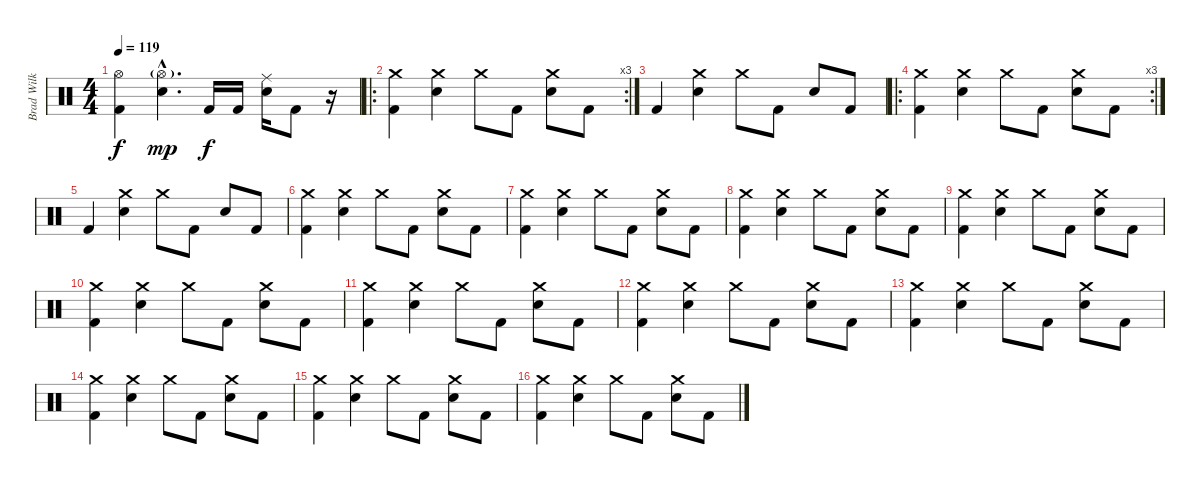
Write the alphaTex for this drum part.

\track ("Brad Wilk" "Brad Wilk") {instrument percussion}
\staff {score}
\articulation defaults
\ts (4 4)
\tempo 119
\clef neutral
\ks c
("Hi-Hat (open)" "Kick (hit) 2").4{dy f} ("Hi-Hat (open)"{g hac} "Electric Snare (hit)"{hac}).4{d dy mp} "Kick (hit) 2".16{dy f} "Kick (hit) 2".16 ("Ride (middle)" "Electric Snare (hit)").16 "Kick (hit) 2".8 r.16 |
\ro
\rc 3
("Crash medium (hit)" "Kick (hit) 2").4 ("Crash medium (hit)" "Electric Snare (hit)").4 "Crash medium (hit)".8 "Kick (hit) 2".8 ("Crash medium (hit)" "Electric Snare (hit)").8 "Kick (hit) 2".8 |
"Kick (hit) 2".4 ("Crash medium (hit)" "Electric Snare (hit)").4 "Crash medium (hit)".8 "Kick (hit) 2".8 "Electric Snare (hit)".8 "Kick (hit) 2".8 |
\ro
\rc 3
("Crash medium (hit)" "Kick (hit) 2").4 ("Crash medium (hit)" "Electric Snare (hit)").4 "Crash medium (hit)".8 "Kick (hit) 2".8 ("Crash medium (hit)" "Electric Snare (hit)").8 "Kick (hit) 2".8 |
"Kick (hit) 2".4 ("Crash medium (hit)" "Electric Snare (hit)").4 "Crash medium (hit)".8 "Kick (hit) 2".8 "Electric Snare (hit)".8 "Kick (hit) 2".8 |
("Crash medium (hit)" "Kick (hit) 2").4 ("Crash medium (hit)" "Electric Snare (hit)").4 "Crash medium (hit)".8 "Kick (hit) 2".8 ("Crash medium (hit)" "Electric Snare (hit)").8 "Kick (hit) 2".8 |
("Crash medium (hit)" "Kick (hit) 2").4 ("Crash medium (hit)" "Electric Snare (hit)").4 "Crash medium (hit)".8 "Kick (hit) 2".8 ("Crash medium (hit)" "Electric Snare (hit)").8 "Kick (hit) 2".8 |
("Crash medium (hit)" "Kick (hit) 2").4 ("Crash medium (hit)" "Electric Snare (hit)").4 "Crash medium (hit)".8 "Kick (hit) 2".8 ("Crash medium (hit)" "Electric Snare (hit)").8 "Kick (hit) 2".8 |
("Crash medium (hit)" "Kick (hit) 2").4 ("Crash medium (hit)" "Electric Snare (hit)").4 "Crash medium (hit)".8 "Kick (hit) 2".8 ("Crash medium (hit)" "Electric Snare (hit)").8 "Kick (hit) 2".8 |
("Crash medium (hit)" "Kick (hit) 2").4 ("Crash medium (hit)" "Electric Snare (hit)").4 "Crash medium (hit)".8 "Kick (hit) 2".8 ("Crash medium (hit)" "Electric Snare (hit)").8 "Kick (hit) 2".8 |
("Crash medium (hit)" "Kick (hit) 2").4 ("Crash medium (hit)" "Electric Snare (hit)").4 "Crash medium (hit)".8 "Kick (hit) 2".8 ("Crash medium (hit)" "Electric Snare (hit)").8 "Kick (hit) 2".8 |
("Crash medium (hit)" "Kick (hit) 2").4 ("Crash medium (hit)" "Electric Snare (hit)").4 "Crash medium (hit)".8 "Kick (hit) 2".8 ("Crash medium (hit)" "Electric Snare (hit)").8 "Kick (hit) 2".8 |
("Crash medium (hit)" "Kick (hit) 2").4 ("Crash medium (hit)" "Electric Snare (hit)").4 "Crash medium (hit)".8 "Kick (hit) 2".8 ("Crash medium (hit)" "Electric Snare (hit)").8 "Kick (hit) 2".8 |
("Crash medium (hit)" "Kick (hit) 2").4 ("Crash medium (hit)" "Electric Snare (hit)").4 "Crash medium (hit)".8 "Kick (hit) 2".8 ("Crash medium (hit)" "Electric Snare (hit)").8 "Kick (hit) 2".8 |
("Crash medium (hit)" "Kick (hit) 2").4 ("Crash medium (hit)" "Electric Snare (hit)").4 "Crash medium (hit)".8 "Kick (hit) 2".8 ("Crash medium (hit)" "Electric Snare (hit)").8 "Kick (hit) 2".8 |
("Crash medium (hit)" "Kick (hit) 2").4 ("Crash medium (hit)" "Electric Snare (hit)").4 "Crash medium (hit)".8 "Kick (hit) 2".8 ("Crash medium (hit)" "Electric Snare (hit)").8 "Kick (hit) 2".8
